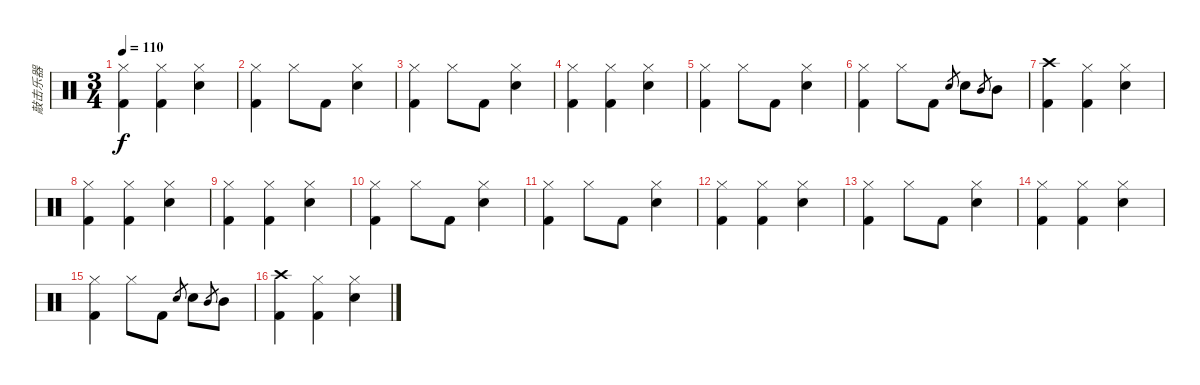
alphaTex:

\track ("敲击乐器" "敲击乐器") {instrument percussion}
\staff {score}
\articulation defaults
\ts (3 4)
\tempo 110
\clef neutral
\ks c
("Hi-Hat (closed)" "Kick (hit) 2").4{dy f} ("Hi-Hat (closed)" "Kick (hit) 2").4 ("Hi-Hat (closed)" "Electric Snare (hit)").4 |
("Hi-Hat (closed)" "Kick (hit) 2").4 "Hi-Hat (closed)".8 "Kick (hit) 2".8 ("Hi-Hat (closed)" "Electric Snare (hit)").4 |
("Hi-Hat (closed)" "Kick (hit) 2").4 "Hi-Hat (closed)".8 "Kick (hit) 2".8 ("Hi-Hat (closed)" "Electric Snare (hit)").4 |
("Hi-Hat (closed)" "Kick (hit) 2").4 ("Hi-Hat (closed)" "Kick (hit) 2").4 ("Hi-Hat (closed)" "Electric Snare (hit)").4 |
("Hi-Hat (closed)" "Kick (hit) 2").4 "Hi-Hat (closed)".8 "Kick (hit) 2".8 ("Hi-Hat (closed)" "Electric Snare (hit)").4 |
("Hi-Hat (closed)" "Kick (hit) 2").4 "Hi-Hat (closed)".8 "Kick (hit) 2".8 "Electric Snare (hit)".8{gr} "Electric Snare (hit)".8 "Mid Tom (hit)".8{gr} "Mid Tom (hit)".8 |
("Crash high (hit)" "Kick (hit) 2").4 ("Hi-Hat (closed)" "Kick (hit) 2").4 ("Hi-Hat (closed)" "Electric Snare (hit)").4 |
("Hi-Hat (closed)" "Kick (hit) 2").4 ("Hi-Hat (closed)" "Kick (hit) 2").4 ("Hi-Hat (closed)" "Electric Snare (hit)").4 |
("Hi-Hat (closed)" "Kick (hit) 2").4 ("Hi-Hat (closed)" "Kick (hit) 2").4 ("Hi-Hat (closed)" "Electric Snare (hit)").4 |
("Hi-Hat (closed)" "Kick (hit) 2").4 "Hi-Hat (closed)".8 "Kick (hit) 2".8 ("Hi-Hat (closed)" "Electric Snare (hit)").4 |
("Hi-Hat (closed)" "Kick (hit) 2").4 "Hi-Hat (closed)".8 "Kick (hit) 2".8 ("Hi-Hat (closed)" "Electric Snare (hit)").4 |
("Hi-Hat (closed)" "Kick (hit) 2").4 ("Hi-Hat (closed)" "Kick (hit) 2").4 ("Hi-Hat (closed)" "Electric Snare (hit)").4 |
("Hi-Hat (closed)" "Kick (hit) 2").4 "Hi-Hat (closed)".8 "Kick (hit) 2".8 ("Hi-Hat (closed)" "Electric Snare (hit)").4 |
("Hi-Hat (closed)" "Kick (hit) 2").4 ("Hi-Hat (closed)" "Kick (hit) 2").4 ("Hi-Hat (closed)" "Electric Snare (hit)").4 |
("Hi-Hat (closed)" "Kick (hit) 2").4 "Hi-Hat (closed)".8 "Kick (hit) 2".8 "Electric Snare (hit)".8{gr} "Electric Snare (hit)".8 "Mid Tom (hit)".8{gr} "Mid Tom (hit)".8 |
("Crash high (hit)" "Kick (hit) 2").4 ("Hi-Hat (closed)" "Kick (hit) 2").4 ("Hi-Hat (closed)" "Electric Snare (hit)").4
